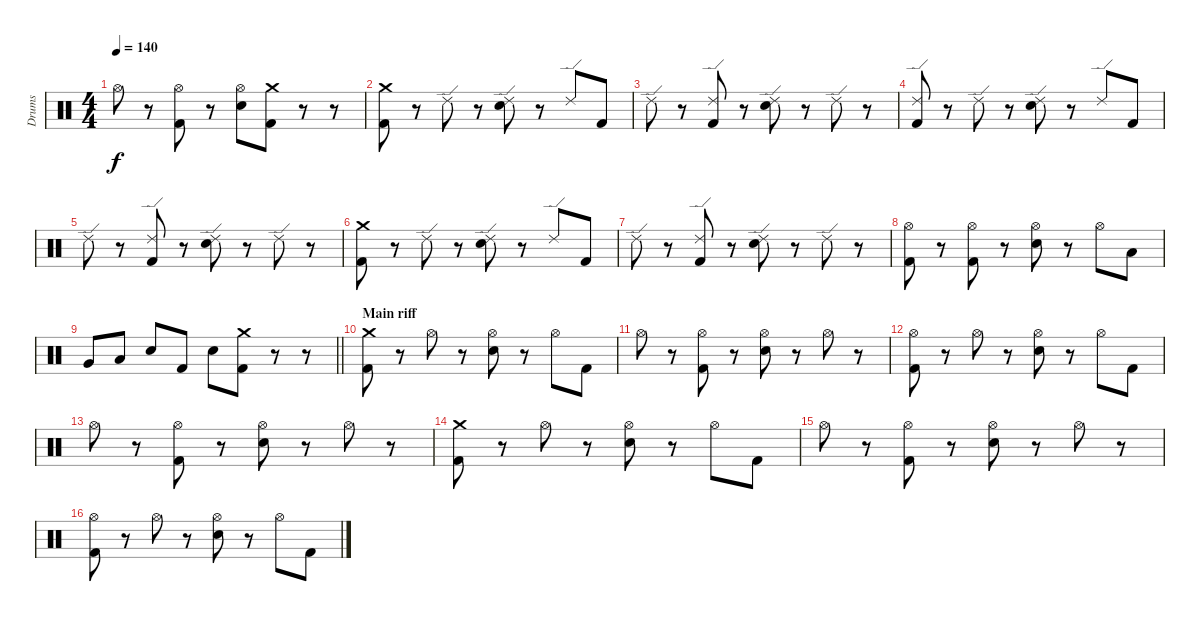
\track ("Drums" "Drums") {instrument percussion}
\staff {score}
\articulation defaults
\ts (4 4)
\tempo 140
\clef neutral
\ks c "Hi-Hat (open)".8{dy f}
r.8 ("Hi-Hat (open)" "Kick (hit) 2").8 r.8 ("Hi-Hat (open)" "Electric Snare (hit)").8 ("Crash medium (hit)" "Kick (hit) 2").8 r.8 r.8 |
("Crash medium (hit)" "Kick (hit) 2").8 r.8 "Ride (edge) 2".8 r.8 ("Ride (edge) 2" "Electric Snare (hit)").8 r.8 "Ride (edge) 2".8 "Kick (hit) 2".8 |
"Ride (edge) 2".8 r.8 ("Ride (edge) 2" "Kick (hit) 2").8 r.8 ("Ride (edge) 2" "Electric Snare (hit)").8 r.8 "Ride (edge) 2".8 r.8 |
("Ride (edge) 2" "Kick (hit) 2").8 r.8 "Ride (edge) 2".8 r.8 ("Ride (edge) 2" "Electric Snare (hit)").8 r.8 "Ride (edge) 2".8 "Kick (hit) 2".8 |
"Ride (edge) 2".8 r.8 ("Ride (edge) 2" "Kick (hit) 2").8 r.8 ("Ride (edge) 2" "Electric Snare (hit)").8 r.8 "Ride (edge) 2".8 r.8 |
("Crash medium (hit)" "Kick (hit) 2").8 r.8 "Ride (edge) 2".8 r.8 ("Ride (edge) 2" "Electric Snare (hit)").8 r.8 "Ride (edge) 2".8 "Kick (hit) 2".8 |
"Ride (edge) 2".8 r.8 ("Ride (edge) 2" "Kick (hit) 2").8 r.8 ("Ride (edge) 2" "Electric Snare (hit)").8 r.8 "Ride (edge) 2".8 r.8 |
("Hi-Hat (open)" "Kick (hit) 2").8 r.8 ("Hi-Hat (open)" "Kick (hit) 2").8 r.8 ("Hi-Hat (open)" "Electric Snare (hit)").8 r.8 "Hi-Hat (open)".8 "Low Tom (hit)".8 |
\barLineRight lightlight "Very Low Tom (hit)".8 "Low Tom (hit)".8 "Electric Snare (hit)".8 "Kick (hit) 2".8 "Electric Snare (hit)".8
("Crash medium (hit)" "Kick (hit) 2").8 r.8 r.8 |
\section ("" "Main riff")
("Crash medium (hit)" "Kick (hit) 2").8 r.8 "Hi-Hat (open)".8 r.8 ("Hi-Hat (open)" "Electric Snare (hit)").8 r.8 "Hi-Hat (open)".8 "Kick (hit) 2".8 |
"Hi-Hat (open)".8 r.8 ("Hi-Hat (open)" "Kick (hit) 2").8 r.8 ("Hi-Hat (open)" "Electric Snare (hit)").8 r.8 "Hi-Hat (open)".8 r.8 |
("Hi-Hat (open)" "Kick (hit) 2").8 r.8 "Hi-Hat (open)".8 r.8 ("Hi-Hat (open)" "Electric Snare (hit)").8 r.8 "Hi-Hat (open)".8 "Kick (hit) 2".8 |
"Hi-Hat (open)".8 r.8 ("Hi-Hat (open)" "Kick (hit) 2").8 r.8 ("Hi-Hat (open)" "Electric Snare (hit)").8 r.8 "Hi-Hat (open)".8 r.8 |
("Crash medium (hit)" "Kick (hit) 2").8 r.8 "Hi-Hat (open)".8 r.8 ("Hi-Hat (open)" "Electric Snare (hit)").8 r.8 "Hi-Hat (open)".8 "Kick (hit) 2".8 |
"Hi-Hat (open)".8 r.8 ("Hi-Hat (open)" "Kick (hit) 2").8 r.8 ("Hi-Hat (open)" "Electric Snare (hit)").8 r.8 "Hi-Hat (open)".8 r.8 |
("Hi-Hat (open)" "Kick (hit) 2").8 r.8 "Hi-Hat (open)".8 r.8 ("Hi-Hat (open)" "Electric Snare (hit)").8 r.8 "Hi-Hat (open)".8 "Kick (hit) 2".8
